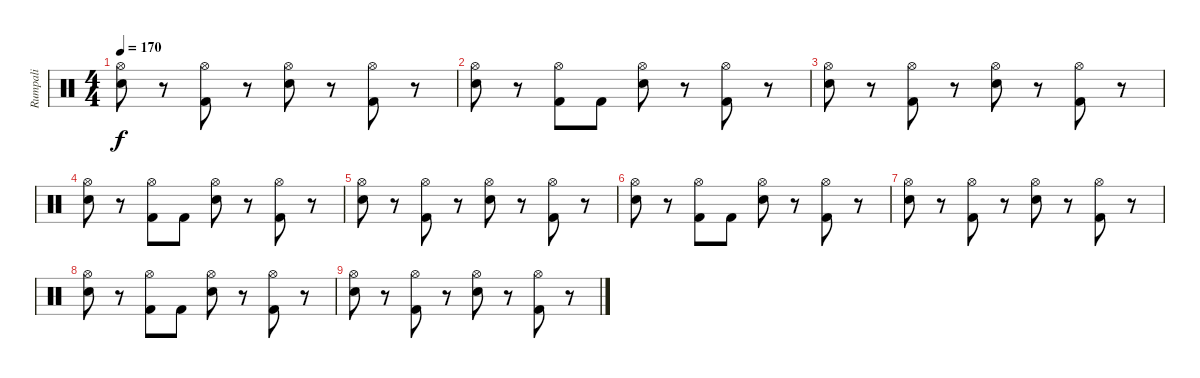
\track ("Rumpali" "Rumpali") {instrument percussion}
\staff {score}
\articulation defaults
\ts (4 4)
\tempo 170
\clef neutral
\ks c
("Hi-Hat (open)" "Electric Snare (hit)").8{dy f} r.8 ("Hi-Hat (open)" "Kick (hit) 2").8 r.8 ("Hi-Hat (open)" "Electric Snare (hit)").8 r.8 ("Hi-Hat (open)" "Kick (hit) 2").8 r.8 |
("Hi-Hat (open)" "Electric Snare (hit)").8 r.8 ("Hi-Hat (open)" "Kick (hit) 2").8 "Kick (hit) 2".8 ("Hi-Hat (open)" "Electric Snare (hit)").8 r.8 ("Hi-Hat (open)" "Kick (hit) 2").8 r.8 |
("Hi-Hat (open)" "Electric Snare (hit)").8 r.8 ("Hi-Hat (open)" "Kick (hit) 2").8 r.8 ("Hi-Hat (open)" "Electric Snare (hit)").8 r.8 ("Hi-Hat (open)" "Kick (hit) 2").8 r.8 |
("Hi-Hat (open)" "Electric Snare (hit)").8 r.8 ("Hi-Hat (open)" "Kick (hit) 2").8 "Kick (hit) 2".8 ("Hi-Hat (open)" "Electric Snare (hit)").8 r.8 ("Hi-Hat (open)" "Kick (hit) 2").8 r.8 |
("Hi-Hat (open)" "Electric Snare (hit)").8 r.8 ("Hi-Hat (open)" "Kick (hit) 2").8 r.8 ("Hi-Hat (open)" "Electric Snare (hit)").8 r.8 ("Hi-Hat (open)" "Kick (hit) 2").8 r.8 |
("Hi-Hat (open)" "Electric Snare (hit)").8 r.8 ("Hi-Hat (open)" "Kick (hit) 2").8 "Kick (hit) 2".8 ("Hi-Hat (open)" "Electric Snare (hit)").8 r.8 ("Hi-Hat (open)" "Kick (hit) 2").8 r.8 |
("Hi-Hat (open)" "Electric Snare (hit)").8 r.8 ("Hi-Hat (open)" "Kick (hit) 2").8 r.8 ("Hi-Hat (open)" "Electric Snare (hit)").8 r.8 ("Hi-Hat (open)" "Kick (hit) 2").8 r.8 |
("Hi-Hat (open)" "Electric Snare (hit)").8 r.8 ("Hi-Hat (open)" "Kick (hit) 2").8 "Kick (hit) 2".8 ("Hi-Hat (open)" "Electric Snare (hit)").8 r.8 ("Hi-Hat (open)" "Kick (hit) 2").8 r.8 |
("Hi-Hat (open)" "Electric Snare (hit)").8 r.8 ("Hi-Hat (open)" "Kick (hit) 2").8 r.8 ("Hi-Hat (open)" "Electric Snare (hit)").8 r.8 ("Hi-Hat (open)" "Kick (hit) 2").8 r.8
